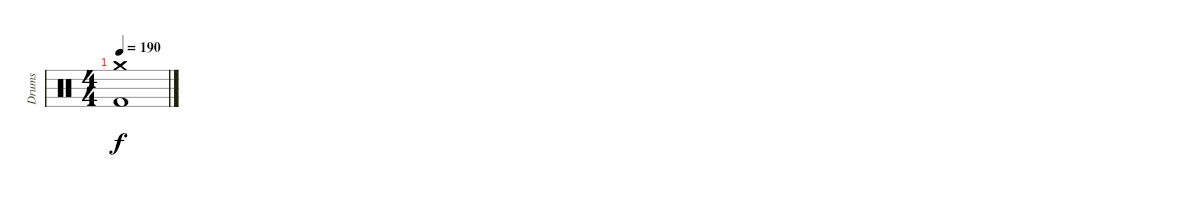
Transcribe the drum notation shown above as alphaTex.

\track ("Drums" "Drums") {instrument percussion}
\staff {score}
\articulation defaults
\ts (4 4)
\tempo 190
\clef neutral
\ks c
("Crash medium (hit)" "Kick (hit) 2").1{dy f}
